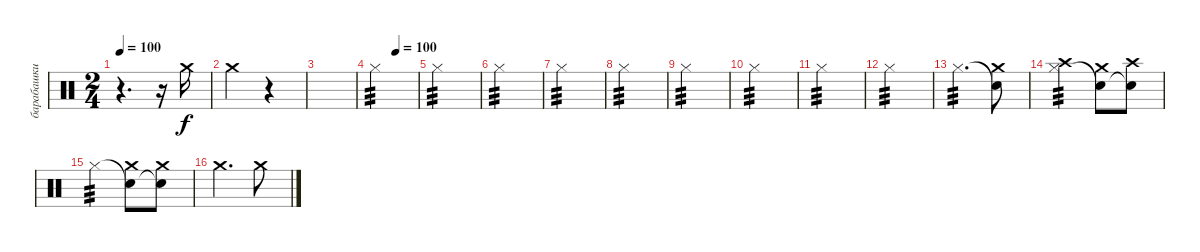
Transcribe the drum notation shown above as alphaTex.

\track ("барабашки high" "барабашки ") {instrument percussion}
\staff {score}
\articulation defaults
\ts (2 4)
\tempo 100
\tempo 35
\tempo 100
\clef neutral
\ks c
r.4{d dy f} r.16{volume 0} "Crash medium (hit)".16{volume 12} |
"Crash medium (hit)".4 r.4 |
|
\tempo (100 0.5)
"Hi-Hat (closed)".2{tp 3 volume 5} |
"Hi-Hat (closed)".2{tp 3} |
"Hi-Hat (closed)".2{tp 3} |
"Hi-Hat (closed)".2{tp 3} |
"Hi-Hat (closed)".2{tp 3} |
"Hi-Hat (closed)".2{tp 3} |
"Hi-Hat (closed)".2{tp 3} |
"Hi-Hat (closed)".2{tp 3} |
"Hi-Hat (closed)".2{tp 3} |
"Hi-Hat (closed)".4{d tp 3} ("Snare (hit)"{t} "Crash medium (hit)").8 |
("Hi-Hat (closed)" "Crash high (hit)").4{tp 3} ("Snare (hit)"{t} "Crash medium (hit)").8 ("Snare (hit)"{t} "Crash high (hit)").8 |
"Hi-Hat (closed)".4{tp 3} ("Snare (hit)"{t} "Crash medium (hit)").8 ("Snare (hit)"{t} "Crash medium (hit)").8 |
"Crash medium (hit)".4{d} "Crash medium (hit)".8
